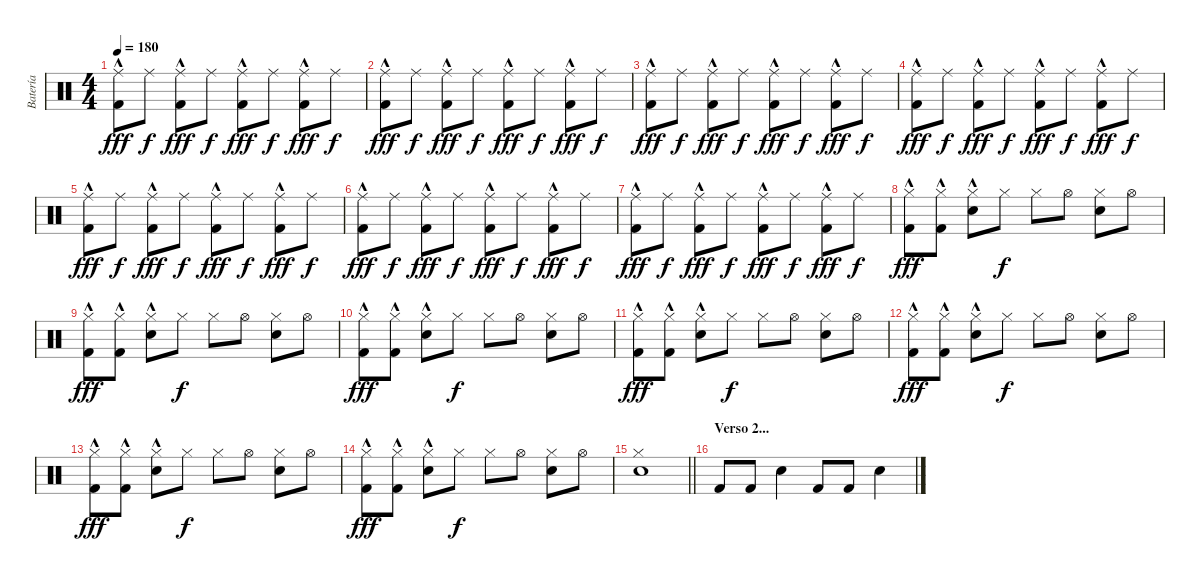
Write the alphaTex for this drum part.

\track ("Batería" "Batería") {instrument percussion}
\staff {score}
\articulation defaults
\ts (4 4)
\tempo 180
\clef neutral
\ks c
("Ride (middle)" "Kick (hit) 2"{hac}).8{dy fff} "Ride (middle)".8{dy f} ("Ride (middle)" "Kick (hit) 2"{hac}).8{dy fff} "Ride (middle)".8{dy f} ("Ride (middle)" "Kick (hit) 2"{hac}).8{dy fff} "Ride (middle)".8{dy f} ("Ride (middle)" "Kick (hit) 2"{hac}).8{dy fff} "Ride (middle)".8{dy f} |
("Ride (middle)" "Kick (hit) 2"{hac}).8{dy fff} "Ride (middle)".8{dy f} ("Ride (middle)" "Kick (hit) 2"{hac}).8{dy fff} "Ride (middle)".8{dy f} ("Ride (middle)" "Kick (hit) 2"{hac}).8{dy fff} "Ride (middle)".8{dy f} ("Ride (middle)" "Kick (hit) 2"{hac}).8{dy fff} "Ride (middle)".8{dy f} |
("Ride (middle)" "Kick (hit) 2"{hac}).8{dy fff} "Ride (middle)".8{dy f} ("Ride (middle)" "Kick (hit) 2"{hac}).8{dy fff} "Ride (middle)".8{dy f} ("Ride (middle)" "Kick (hit) 2"{hac}).8{dy fff} "Ride (middle)".8{dy f} ("Ride (middle)" "Kick (hit) 2"{hac}).8{dy fff} "Ride (middle)".8{dy f} |
("Ride (middle)" "Kick (hit) 2"{hac}).8{dy fff} "Ride (middle)".8{dy f} ("Ride (middle)" "Kick (hit) 2"{hac}).8{dy fff} "Ride (middle)".8{dy f} ("Ride (middle)" "Kick (hit) 2"{hac}).8{dy fff} "Ride (middle)".8{dy f} ("Ride (middle)" "Kick (hit) 2"{hac}).8{dy fff} "Ride (middle)".8{dy f} |
("Ride (middle)" "Kick (hit) 2"{hac}).8{dy fff} "Ride (middle)".8{dy f} ("Ride (middle)" "Kick (hit) 2"{hac}).8{dy fff} "Ride (middle)".8{dy f} ("Ride (middle)" "Kick (hit) 2"{hac}).8{dy fff} "Ride (middle)".8{dy f} ("Ride (middle)" "Kick (hit) 2"{hac}).8{dy fff} "Ride (middle)".8{dy f} |
("Ride (middle)" "Kick (hit) 2"{hac}).8{dy fff} "Ride (middle)".8{dy f} ("Ride (middle)" "Kick (hit) 2"{hac}).8{dy fff} "Ride (middle)".8{dy f} ("Ride (middle)" "Kick (hit) 2"{hac}).8{dy fff} "Ride (middle)".8{dy f} ("Ride (middle)" "Kick (hit) 2"{hac}).8{dy fff} "Ride (middle)".8{dy f} |
("Ride (middle)" "Kick (hit) 2"{hac}).8{dy fff} "Ride (middle)".8{dy f} ("Ride (middle)" "Kick (hit) 2"{hac}).8{dy fff} "Ride (middle)".8{dy f} ("Ride (middle)" "Kick (hit) 2"{hac}).8{dy fff} "Ride (middle)".8{dy f} ("Ride (middle)" "Kick (hit) 2"{hac}).8{dy fff} "Ride (middle)".8{dy f} |
("Hi-Hat (closed)" "Kick (hit) 2"{hac}).8{dy fff} ("Hi-Hat (closed)" "Kick (hit) 2"{hac}).8 ("Snare (hit) 2"{hac} "Hi-Hat (closed)").8 "Hi-Hat (closed)".8{dy f} "Hi-Hat (closed)".8 "Hi-Hat (open)".8 ("Snare (hit) 2" "Hi-Hat (closed)").8 "Hi-Hat (open)".8 |
("Hi-Hat (closed)" "Kick (hit) 2"{hac}).8{dy fff} ("Hi-Hat (closed)" "Kick (hit) 2"{hac}).8 ("Snare (hit) 2"{hac} "Hi-Hat (closed)").8 "Hi-Hat (closed)".8{dy f} "Hi-Hat (closed)".8 "Hi-Hat (open)".8 ("Snare (hit) 2" "Hi-Hat (closed)").8 "Hi-Hat (open)".8 |
("Hi-Hat (closed)" "Kick (hit) 2"{hac}).8{dy fff} ("Hi-Hat (closed)" "Kick (hit) 2"{hac}).8 ("Snare (hit) 2"{hac} "Hi-Hat (closed)").8 "Hi-Hat (closed)".8{dy f} "Hi-Hat (closed)".8 "Hi-Hat (open)".8 ("Snare (hit) 2" "Hi-Hat (closed)").8 "Hi-Hat (open)".8 |
("Hi-Hat (closed)" "Kick (hit) 2"{hac}).8{dy fff} ("Hi-Hat (closed)" "Kick (hit) 2"{hac}).8 ("Snare (hit) 2"{hac} "Hi-Hat (closed)").8 "Hi-Hat (closed)".8{dy f} "Hi-Hat (closed)".8 "Hi-Hat (open)".8 ("Snare (hit) 2" "Hi-Hat (closed)").8 "Hi-Hat (open)".8 |
("Hi-Hat (closed)" "Kick (hit) 2"{hac}).8{dy fff} ("Hi-Hat (closed)" "Kick (hit) 2"{hac}).8 ("Snare (hit) 2"{hac} "Hi-Hat (closed)").8 "Hi-Hat (closed)".8{dy f} "Hi-Hat (closed)".8 "Hi-Hat (open)".8 ("Snare (hit) 2" "Hi-Hat (closed)").8 "Hi-Hat (open)".8 |
("Hi-Hat (closed)" "Kick (hit) 2"{hac}).8{dy fff} ("Hi-Hat (closed)" "Kick (hit) 2"{hac}).8 ("Snare (hit) 2"{hac} "Hi-Hat (closed)").8 "Hi-Hat (closed)".8{dy f} "Hi-Hat (closed)".8 "Hi-Hat (open)".8 ("Snare (hit) 2" "Hi-Hat (closed)").8 "Hi-Hat (open)".8 |
("Hi-Hat (closed)" "Kick (hit) 2"{hac}).8{dy fff} ("Hi-Hat (closed)" "Kick (hit) 2"{hac}).8 ("Snare (hit) 2"{hac} "Hi-Hat (closed)").8 "Hi-Hat (closed)".8{dy f} "Hi-Hat (closed)".8 "Hi-Hat (open)".8 ("Snare (hit) 2" "Hi-Hat (closed)").8 "Hi-Hat (open)".8 |
\barLineRight lightlight
("Snare (hit) 2" "Hi-Hat (closed)").1 |
\section ("" "Verso 2...")
"Kick (hit) 2".8 "Kick (hit) 2".8 "Snare (hit) 2".4 "Kick (hit) 2".8 "Kick (hit) 2".8 "Snare (hit) 2".4
